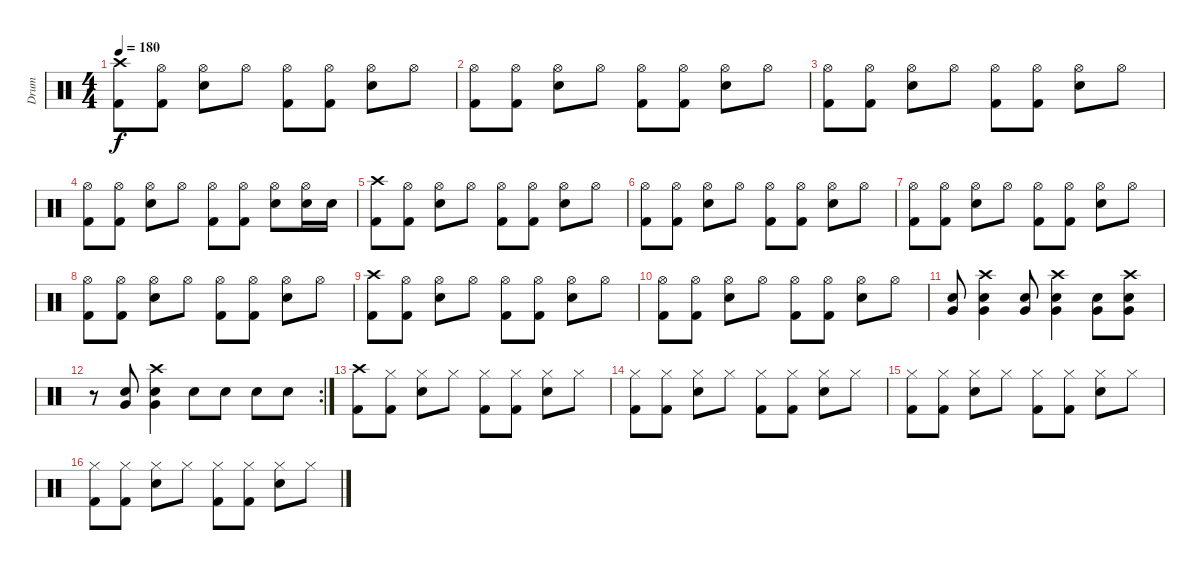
\track ("Drum" "Drum") {instrument percussion}
\staff {score}
\articulation defaults
\ts (4 4)
\tempo 180
\clef neutral
\ks c
("Crash high (hit)" "Kick (hit) 2").8{dy f} ("Hi-Hat (open)" "Kick (hit) 2").8 ("Hi-Hat (open)" "Electric Snare (hit)").8 "Hi-Hat (open)".8 ("Hi-Hat (open)" "Kick (hit) 2").8 ("Hi-Hat (open)" "Kick (hit) 2").8 ("Hi-Hat (open)" "Electric Snare (hit)").8 "Hi-Hat (open)".8 |
("Hi-Hat (open)" "Kick (hit) 2").8 ("Hi-Hat (open)" "Kick (hit) 2").8 ("Hi-Hat (open)" "Electric Snare (hit)").8 "Hi-Hat (open)".8 ("Hi-Hat (open)" "Kick (hit) 2").8 ("Hi-Hat (open)" "Kick (hit) 2").8 ("Hi-Hat (open)" "Electric Snare (hit)").8 "Hi-Hat (open)".8 |
("Hi-Hat (open)" "Kick (hit) 2").8 ("Hi-Hat (open)" "Kick (hit) 2").8 ("Hi-Hat (open)" "Electric Snare (hit)").8 "Hi-Hat (open)".8 ("Hi-Hat (open)" "Kick (hit) 2").8 ("Hi-Hat (open)" "Kick (hit) 2").8 ("Hi-Hat (open)" "Electric Snare (hit)").8 "Hi-Hat (open)".8 |
("Hi-Hat (open)" "Kick (hit) 2").8 ("Hi-Hat (open)" "Kick (hit) 2").8 ("Hi-Hat (open)" "Electric Snare (hit)").8 "Hi-Hat (open)".8 ("Hi-Hat (open)" "Kick (hit) 2").8 ("Hi-Hat (open)" "Kick (hit) 2").8 ("Hi-Hat (open)" "Electric Snare (hit)").8 ("Hi-Hat (open)" "Electric Snare (hit)").16 "Electric Snare (hit)".16 |
("Crash high (hit)" "Kick (hit) 2").8 ("Hi-Hat (open)" "Kick (hit) 2").8 ("Hi-Hat (open)" "Electric Snare (hit)").8 "Hi-Hat (open)".8 ("Hi-Hat (open)" "Kick (hit) 2").8 ("Hi-Hat (open)" "Kick (hit) 2").8 ("Hi-Hat (open)" "Electric Snare (hit)").8 "Hi-Hat (open)".8 |
("Hi-Hat (open)" "Kick (hit) 2").8 ("Hi-Hat (open)" "Kick (hit) 2").8 ("Hi-Hat (open)" "Electric Snare (hit)").8 "Hi-Hat (open)".8 ("Hi-Hat (open)" "Kick (hit) 2").8 ("Hi-Hat (open)" "Kick (hit) 2").8 ("Hi-Hat (open)" "Electric Snare (hit)").8 "Hi-Hat (open)".8 |
("Hi-Hat (open)" "Kick (hit) 2").8 ("Hi-Hat (open)" "Kick (hit) 2").8 ("Hi-Hat (open)" "Electric Snare (hit)").8 "Hi-Hat (open)".8 ("Hi-Hat (open)" "Kick (hit) 2").8 ("Hi-Hat (open)" "Kick (hit) 2").8 ("Hi-Hat (open)" "Electric Snare (hit)").8 "Hi-Hat (open)".8 |
("Hi-Hat (open)" "Kick (hit) 2").8 ("Hi-Hat (open)" "Kick (hit) 2").8 ("Hi-Hat (open)" "Electric Snare (hit)").8 "Hi-Hat (open)".8 ("Hi-Hat (open)" "Kick (hit) 2").8 ("Hi-Hat (open)" "Kick (hit) 2").8 ("Hi-Hat (open)" "Electric Snare (hit)").8 "Hi-Hat (open)".8 |
("Crash high (hit)" "Kick (hit) 2").8 ("Hi-Hat (open)" "Kick (hit) 2").8 ("Hi-Hat (open)" "Electric Snare (hit)").8 "Hi-Hat (open)".8 ("Hi-Hat (open)" "Kick (hit) 2").8 ("Hi-Hat (open)" "Kick (hit) 2").8 ("Hi-Hat (open)" "Electric Snare (hit)").8 "Hi-Hat (open)".8 |
("Hi-Hat (open)" "Kick (hit) 2").8 ("Hi-Hat (open)" "Kick (hit) 2").8 ("Hi-Hat (open)" "Electric Snare (hit)").8 "Hi-Hat (open)".8 ("Hi-Hat (open)" "Kick (hit) 2").8 ("Hi-Hat (open)" "Kick (hit) 2").8 ("Hi-Hat (open)" "Electric Snare (hit)").8 "Hi-Hat (open)".8 |
("Electric Snare (hit)" "Very Low Tom (hit)").8 ("Crash high (hit)" "Electric Snare (hit)" "Very Low Tom (hit)").4 ("Electric Snare (hit)" "Very Low Tom (hit)").8 ("Crash high (hit)" "Electric Snare (hit)" "Very Low Tom (hit)").4 ("Electric Snare (hit)" "Very Low Tom (hit)").8 ("Crash high (hit)" "Electric Snare (hit)" "Very Low Tom (hit)").8 |
\rc 2
r.8 ("Electric Snare (hit)" "Very Low Tom (hit)").8 ("Crash high (hit)" "Electric Snare (hit)" "Very Low Tom (hit)").4 "Electric Snare (hit)".8 "Electric Snare (hit)".8 "Electric Snare (hit)".8 "Electric Snare (hit)".8 |
("Crash high (hit)" "Kick (hit) 2").8 ("Hi-Hat (closed)" "Kick (hit) 2").8 ("Hi-Hat (closed)" "Electric Snare (hit)").8 "Hi-Hat (closed)".8 ("Hi-Hat (closed)" "Kick (hit) 2").8 ("Hi-Hat (closed)" "Kick (hit) 2").8 ("Hi-Hat (closed)" "Electric Snare (hit)").8 "Hi-Hat (closed)".8 |
("Hi-Hat (closed)" "Kick (hit) 2").8 ("Hi-Hat (closed)" "Kick (hit) 2").8 ("Hi-Hat (closed)" "Electric Snare (hit)").8 "Hi-Hat (closed)".8 ("Hi-Hat (closed)" "Kick (hit) 2").8 ("Hi-Hat (closed)" "Kick (hit) 2").8 ("Hi-Hat (closed)" "Electric Snare (hit)").8 "Hi-Hat (closed)".8 |
("Hi-Hat (closed)" "Kick (hit) 2").8 ("Hi-Hat (closed)" "Kick (hit) 2").8 ("Hi-Hat (closed)" "Electric Snare (hit)").8 "Hi-Hat (closed)".8 ("Hi-Hat (closed)" "Kick (hit) 2").8 ("Hi-Hat (closed)" "Kick (hit) 2").8 ("Hi-Hat (closed)" "Electric Snare (hit)").8 "Hi-Hat (closed)".8 |
("Hi-Hat (closed)" "Kick (hit) 2").8 ("Hi-Hat (closed)" "Kick (hit) 2").8 ("Hi-Hat (closed)" "Electric Snare (hit)").8 "Hi-Hat (closed)".8 ("Hi-Hat (closed)" "Kick (hit) 2").8 ("Hi-Hat (closed)" "Kick (hit) 2").8 ("Hi-Hat (closed)" "Electric Snare (hit)").8 "Hi-Hat (closed)".8
